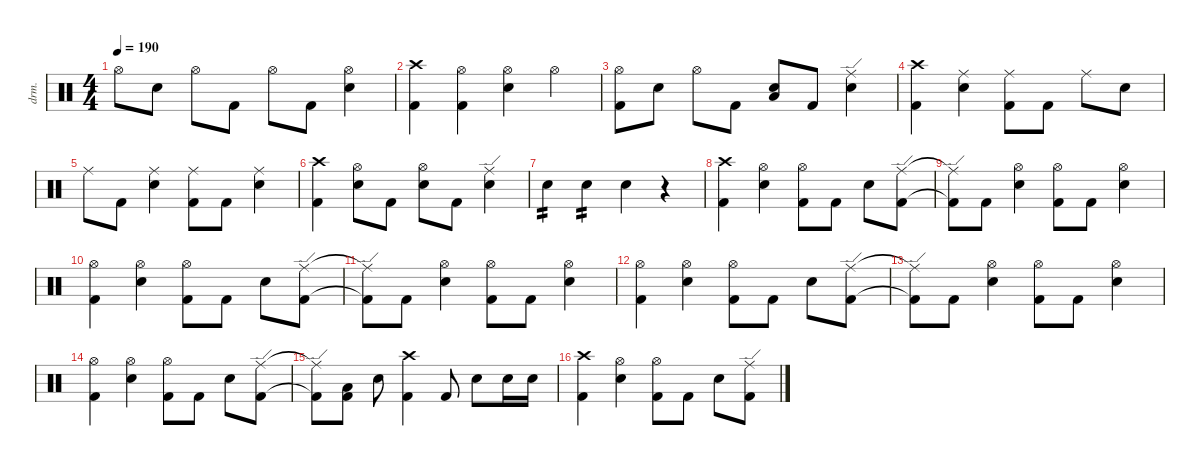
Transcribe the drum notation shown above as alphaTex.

\defaultSystemsLayout 4
\hideDynamics
\bracketExtendMode nobrackets
\track ("Drumkit" "drm.") {instrument percussion}
\staff {score}
\articulation defaults
\ts (4 4)
\tempo 190
\clef neutral
\ks c "Hi-Hat (open)".8{dy mf} "Snare (hit) 2".8 "Hi-Hat (open)".8 "Kick (hit) 2".8 "Hi-Hat (open)".8 "Kick (hit) 2".8
("Hi-Hat (open)" "Snare (hit) 2").4 |
("Crash high (hit)" "Kick (hit) 2").4 ("Hi-Hat (open)" "Kick (hit) 2").4 ("Hi-Hat (open)" "Snare (hit) 2").4 "Hi-Hat (open)".4 |
("Hi-Hat (open)" "Kick (hit) 2").8 "Snare (hit) 2".8 "Hi-Hat (open)".8 "Kick (hit) 2".8 ("Snare (hit) 2" "Low Tom (hit)").8 "Kick (hit) 2".8 ("Ride (edge)" "Snare (hit) 2").4 |
("Crash high (hit)" "Kick (hit) 2").4 ("Ride (middle)" "Snare (hit) 2").4 ("Ride (middle)" "Kick (hit) 2").8 "Kick (hit) 2".8 "Ride (middle)".8 "Snare (hit) 2".8 |
"Ride (middle)".8 "Kick (hit) 2".8 ("Ride (middle)" "Snare (hit) 2").4 ("Ride (middle)" "Kick (hit) 2").8 "Kick (hit) 2".8 ("Ride (middle)" "Snare (hit) 2").4 |
("Crash high (hit)" "Kick (hit) 2").4 ("Snare (hit) 2" "Hi-Hat (open)").8 "Kick (hit) 2".8 ("Snare (hit) 2" "Hi-Hat (open)").8 "Kick (hit) 2".8 ("Snare (hit) 2" "Ride (edge)").4 |
"Snare (hit) 2".4{tp 2} "Snare (hit) 2".4{tp 2} "Snare (hit) 2".4 r.4 |
("Crash high (hit)" "Kick (hit) 2").4 ("Hi-Hat (open)" "Snare (hit) 2").4 ("Hi-Hat (open)" "Kick (hit) 2").8 "Kick (hit) 2".8 "Snare (hit) 2".8 ("Ride (edge)" "Kick (hit) 2").8 |
("Ride (edge)"{t} "Kick (hit) 2"{t}).8 "Kick (hit) 2".8 ("Hi-Hat (open)" "Snare (hit) 2").4 ("Hi-Hat (open)" "Kick (hit) 2").8 "Kick (hit) 2".8 ("Hi-Hat (open)" "Snare (hit) 2").4 |
("Kick (hit) 2" "Hi-Hat (open)").4 ("Hi-Hat (open)" "Snare (hit) 2").4 ("Hi-Hat (open)" "Kick (hit) 2").8 "Kick (hit) 2".8 "Snare (hit) 2".8 ("Ride (edge)" "Kick (hit) 2").8 |
("Ride (edge)"{t} "Kick (hit) 2"{t}).8 "Kick (hit) 2".8 ("Hi-Hat (open)" "Snare (hit) 2").4 ("Hi-Hat (open)" "Kick (hit) 2").8 "Kick (hit) 2".8 ("Hi-Hat (open)" "Snare (hit) 2").4 |
("Kick (hit) 2" "Hi-Hat (open)").4 ("Hi-Hat (open)" "Snare (hit) 2").4 ("Hi-Hat (open)" "Kick (hit) 2").8 "Kick (hit) 2".8 "Snare (hit) 2".8 ("Ride (edge)" "Kick (hit) 2").8 |
("Ride (edge)"{t} "Kick (hit) 2"{t}).8 "Kick (hit) 2".8 ("Hi-Hat (open)" "Snare (hit) 2").4 ("Hi-Hat (open)" "Kick (hit) 2").8 "Kick (hit) 2".8 ("Hi-Hat (open)" "Snare (hit) 2").4 |
("Kick (hit) 2" "Hi-Hat (open)").4 ("Hi-Hat (open)" "Snare (hit) 2").4 ("Hi-Hat (open)" "Kick (hit) 2").8 "Kick (hit) 2".8 "Snare (hit) 2".8 ("Ride (edge)" "Kick (hit) 2").8 |
("Ride (edge)"{t} "Kick (hit) 2"{t}).8 ("Kick (hit) 2" "Low Tom (hit)").8 "Snare (hit) 2".8 ("Kick (hit) 2" "Crash high (hit)").4 "Kick (hit) 2".8 "Snare (hit) 2".8 "Snare (hit) 2".16 "Snare (hit) 2".16 |
("Crash high (hit)" "Kick (hit) 2").4 ("Hi-Hat (open)" "Snare (hit) 2").4 ("Hi-Hat (open)" "Kick (hit) 2").8 "Kick (hit) 2".8 "Snare (hit) 2".8 ("Ride (edge)" "Kick (hit) 2").8
